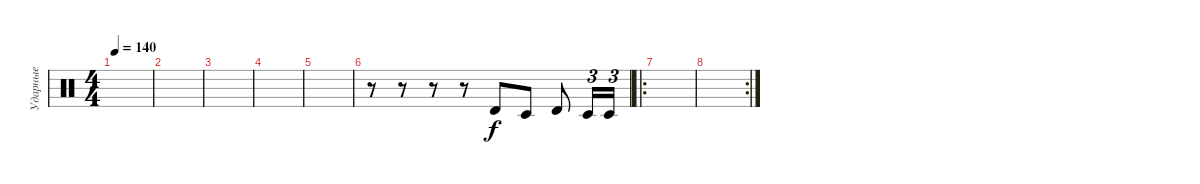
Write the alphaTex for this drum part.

\track ("Ударные" "Ударные") {instrument percussion}
\staff {score}
\articulation defaults
\ts (4 4)
\tempo 140
\clef neutral
\ks c
|
|
|
|
|
r.8 r.8 r.8 r.8 "Timbale high (hit)".8 "Timbale low (hit)".8 "Timbale high (hit)".8 "Timbale low (hit)".16{tu (3 2)} "Timbale low (hit)".16{tu (3 2)} |
\ro
|
\rc 2
